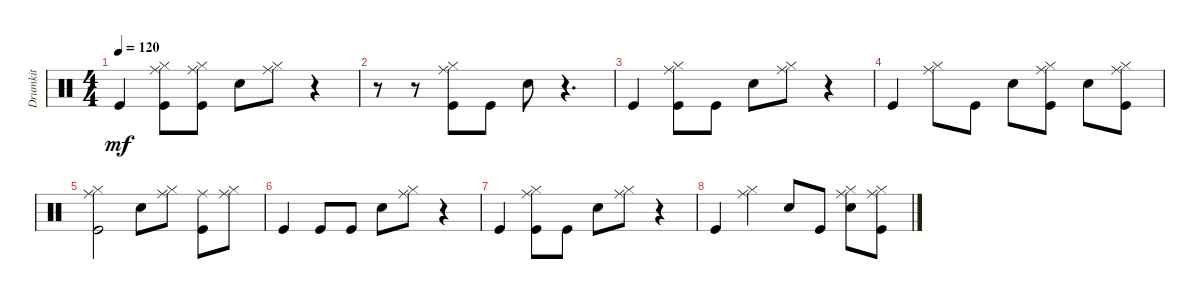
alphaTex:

\track ("Drumkit" "Drumkit") {instrument percussion}
\staff {score}
\articulation defaults
\ts (4 4)
\tempo 120
\clef neutral
\ks c "Kick (hit)".4{dy mf}
("Kick (hit)" "Ride (middle)" "Hi-Hat (closed)").8 ("Kick (hit)" "Ride (middle)" "Hi-Hat (closed)").8 "Snare (hit) 2".8 ("Hi-Hat (closed)" "Ride (middle)").8 r.4 |
r.8 r.8 ("Ride (middle)" "Hi-Hat (closed)" "Kick (hit)").8 "Kick (hit)".8 "Snare (hit) 2".8 r.4{d} |
"Kick (hit)".4 ("Kick (hit)" "Ride (middle)" "Hi-Hat (closed)").8 "Kick (hit)".8 "Snare (hit) 2".8 ("Ride (middle)" "Hi-Hat (closed)").8 r.4 |
"Kick (hit)".4 ("Ride (middle)" "Hi-Hat (closed)").8 "Kick (hit)".8 "Snare (hit) 2".8 ("Ride (middle)" "Hi-Hat (closed)" "Kick (hit)").8 "Snare (hit) 2".8 ("Ride (middle)" "Hi-Hat (closed)" "Kick (hit)").8 |
("Kick (hit)" "Ride (middle)" "Hi-Hat (closed)").2 "Snare (hit) 2".8 ("Hi-Hat (closed)" "Ride (middle)").8 ("Kick (hit)" "Ride (middle)").8 ("Hi-Hat (closed)" "Ride (middle)").8 |
"Kick (hit)".4 "Kick (hit)".8 "Kick (hit)".8 "Snare (hit) 2".8 ("Hi-Hat (closed)" "Ride (middle)").8 r.4 |
"Kick (hit)".4 ("Kick (hit)" "Ride (middle)" "Hi-Hat (closed)").8 "Kick (hit)".8 "Snare (hit) 2".8 ("Hi-Hat (closed)" "Ride (middle)").8 r.4 |
"Kick (hit)".4 ("Ride (middle)" "Hi-Hat (closed)").4 "Snare (hit) 2".8 "Kick (hit)".8 ("Hi-Hat (closed)" "Ride (middle)" "Snare (hit) 2").8 ("Ride (middle)" "Hi-Hat (closed)" "Kick (hit)").8
